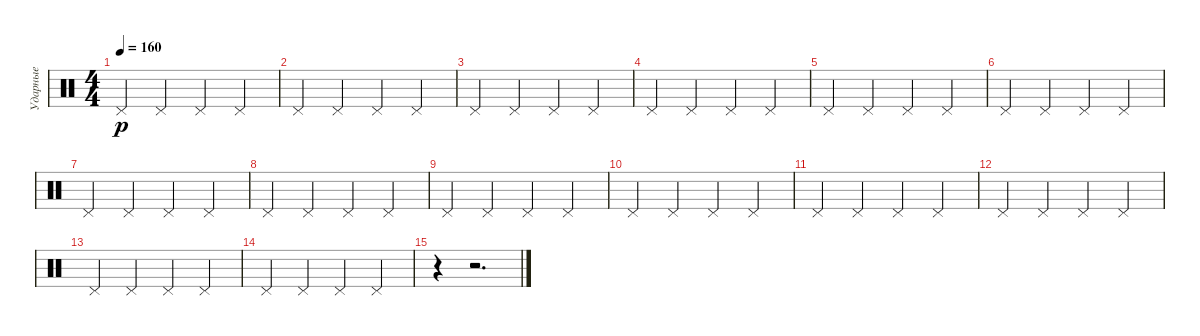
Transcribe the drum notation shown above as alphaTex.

\track ("Ударные" "Ударные") {instrument percussion}
\staff {score}
\articulation defaults
\ts (4 4)
\tempo 160
\clef neutral
\ks c "Pedal Hi-Hat (hit)".4{dy p} "Pedal Hi-Hat (hit)".4 "Pedal Hi-Hat (hit)".4 "Pedal Hi-Hat (hit)".4
|
"Pedal Hi-Hat (hit)".4 "Pedal Hi-Hat (hit)".4 "Pedal Hi-Hat (hit)".4 "Pedal Hi-Hat (hit)".4 |
"Pedal Hi-Hat (hit)".4 "Pedal Hi-Hat (hit)".4 "Pedal Hi-Hat (hit)".4 "Pedal Hi-Hat (hit)".4 |
"Pedal Hi-Hat (hit)".4 "Pedal Hi-Hat (hit)".4 "Pedal Hi-Hat (hit)".4 "Pedal Hi-Hat (hit)".4 |
"Pedal Hi-Hat (hit)".4 "Pedal Hi-Hat (hit)".4 "Pedal Hi-Hat (hit)".4 "Pedal Hi-Hat (hit)".4 |
"Pedal Hi-Hat (hit)".4 "Pedal Hi-Hat (hit)".4 "Pedal Hi-Hat (hit)".4 "Pedal Hi-Hat (hit)".4 |
"Pedal Hi-Hat (hit)".4 "Pedal Hi-Hat (hit)".4 "Pedal Hi-Hat (hit)".4 "Pedal Hi-Hat (hit)".4 |
"Pedal Hi-Hat (hit)".4 "Pedal Hi-Hat (hit)".4 "Pedal Hi-Hat (hit)".4 "Pedal Hi-Hat (hit)".4 |
"Pedal Hi-Hat (hit)".4 "Pedal Hi-Hat (hit)".4 "Pedal Hi-Hat (hit)".4 "Pedal Hi-Hat (hit)".4 |
"Pedal Hi-Hat (hit)".4 "Pedal Hi-Hat (hit)".4 "Pedal Hi-Hat (hit)".4 "Pedal Hi-Hat (hit)".4 |
"Pedal Hi-Hat (hit)".4 "Pedal Hi-Hat (hit)".4 "Pedal Hi-Hat (hit)".4 "Pedal Hi-Hat (hit)".4 |
"Pedal Hi-Hat (hit)".4 "Pedal Hi-Hat (hit)".4 "Pedal Hi-Hat (hit)".4 "Pedal Hi-Hat (hit)".4 |
"Pedal Hi-Hat (hit)".4 "Pedal Hi-Hat (hit)".4 "Pedal Hi-Hat (hit)".4 "Pedal Hi-Hat (hit)".4 |
"Pedal Hi-Hat (hit)".4 "Pedal Hi-Hat (hit)".4 "Pedal Hi-Hat (hit)".4 "Pedal Hi-Hat (hit)".4 |
r.4 r.2{d}
